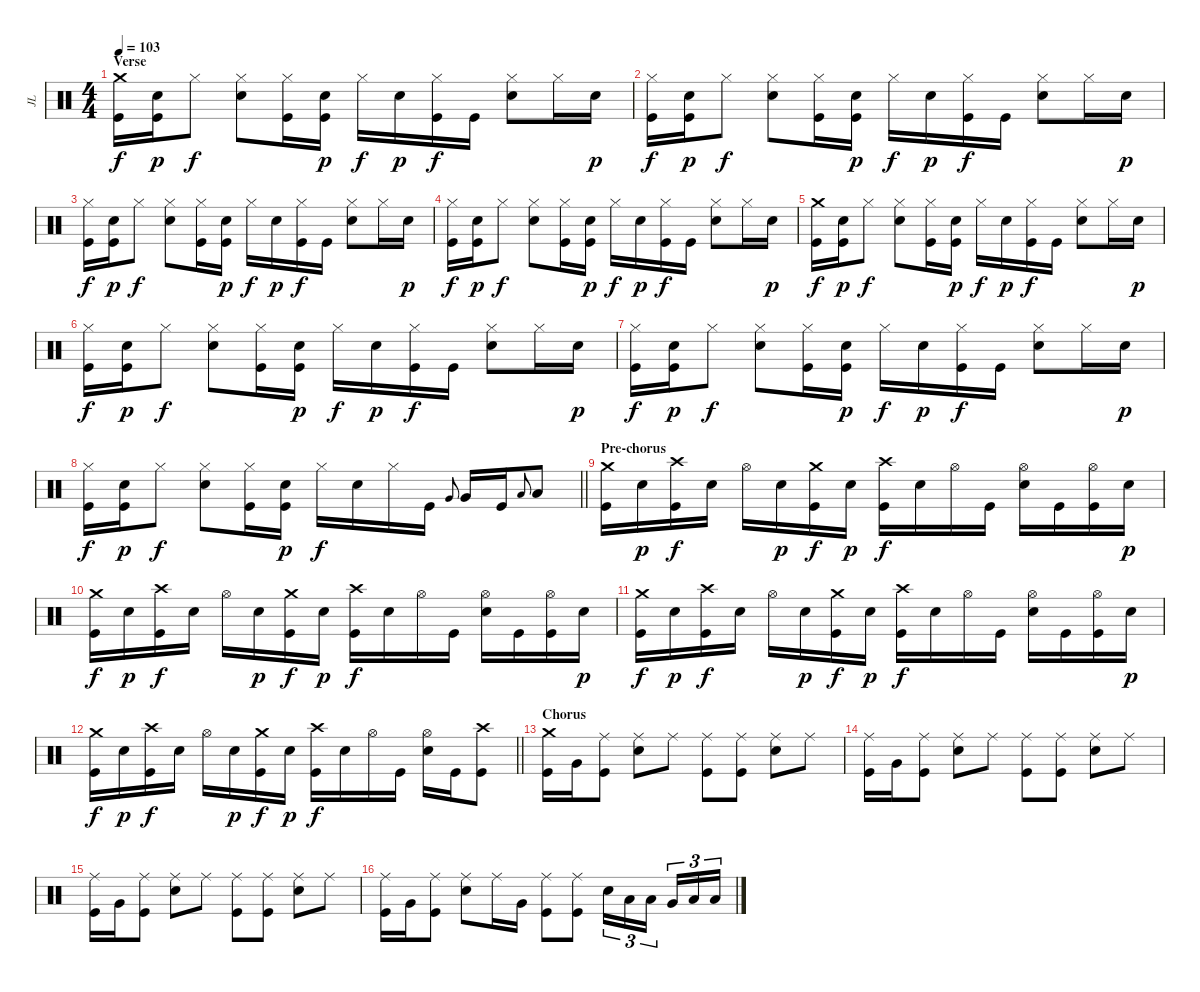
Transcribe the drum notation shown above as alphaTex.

\track ("JL" "JL") {instrument percussion}
\staff {score}
\articulation defaults
\ts (4 4)
\section ("" "Verse")
\tempo 103
\clef neutral
\ks c
("Crash medium (hit)" "Kick (hit)").16{dy f} ("Electric Snare (hit)" "Kick (hit)").16{dy p} "Hi-Hat (closed)".8{dy f} ("Hi-Hat (closed)" "Electric Snare (hit)").8 ("Hi-Hat (closed)" "Kick (hit)").16 ("Electric Snare (hit)" "Kick (hit)").16{dy p} "Hi-Hat (closed)".16{dy f} "Electric Snare (hit)".16{dy p} ("Hi-Hat (closed)" "Kick (hit)").16{dy f} "Kick (hit)".16 ("Hi-Hat (closed)" "Electric Snare (hit)").8 "Hi-Hat (closed)".16 "Electric Snare (hit)".16{dy p} |
("Hi-Hat (closed)" "Kick (hit)").16{dy f} ("Electric Snare (hit)" "Kick (hit)").16{dy p} "Hi-Hat (closed)".8{dy f} ("Hi-Hat (closed)" "Electric Snare (hit)").8 ("Hi-Hat (closed)" "Kick (hit)").16 ("Electric Snare (hit)" "Kick (hit)").16{dy p} "Hi-Hat (closed)".16{dy f} "Electric Snare (hit)".16{dy p} ("Hi-Hat (closed)" "Kick (hit)").16{dy f} "Kick (hit)".16 ("Hi-Hat (closed)" "Electric Snare (hit)").8 "Hi-Hat (closed)".16 "Electric Snare (hit)".16{dy p} |
("Hi-Hat (closed)" "Kick (hit)").16{dy f} ("Electric Snare (hit)" "Kick (hit)").16{dy p} "Hi-Hat (closed)".8{dy f} ("Hi-Hat (closed)" "Electric Snare (hit)").8 ("Hi-Hat (closed)" "Kick (hit)").16 ("Electric Snare (hit)" "Kick (hit)").16{dy p} "Hi-Hat (closed)".16{dy f} "Electric Snare (hit)".16{dy p} ("Hi-Hat (closed)" "Kick (hit)").16{dy f} "Kick (hit)".16 ("Hi-Hat (closed)" "Electric Snare (hit)").8 "Hi-Hat (closed)".16 "Electric Snare (hit)".16{dy p} |
("Hi-Hat (closed)" "Kick (hit)").16{dy f} ("Electric Snare (hit)" "Kick (hit)").16{dy p} "Hi-Hat (closed)".8{dy f} ("Hi-Hat (closed)" "Electric Snare (hit)").8 ("Hi-Hat (closed)" "Kick (hit)").16 ("Electric Snare (hit)" "Kick (hit)").16{dy p} "Hi-Hat (closed)".16{dy f} "Electric Snare (hit)".16{dy p} ("Hi-Hat (closed)" "Kick (hit)").16{dy f} "Kick (hit)".16 ("Hi-Hat (closed)" "Electric Snare (hit)").8 "Hi-Hat (closed)".16 "Electric Snare (hit)".16{dy p} |
("Crash medium (hit)" "Kick (hit)").16{dy f} ("Electric Snare (hit)" "Kick (hit)").16{dy p} "Hi-Hat (closed)".8{dy f} ("Hi-Hat (closed)" "Electric Snare (hit)").8 ("Hi-Hat (closed)" "Kick (hit)").16 ("Electric Snare (hit)" "Kick (hit)").16{dy p} "Hi-Hat (closed)".16{dy f} "Electric Snare (hit)".16{dy p} ("Hi-Hat (closed)" "Kick (hit)").16{dy f} "Kick (hit)".16 ("Hi-Hat (closed)" "Electric Snare (hit)").8 "Hi-Hat (closed)".16 "Electric Snare (hit)".16{dy p} |
("Hi-Hat (closed)" "Kick (hit)").16{dy f} ("Electric Snare (hit)" "Kick (hit)").16{dy p} "Hi-Hat (closed)".8{dy f} ("Hi-Hat (closed)" "Electric Snare (hit)").8 ("Hi-Hat (closed)" "Kick (hit)").16 ("Electric Snare (hit)" "Kick (hit)").16{dy p} "Hi-Hat (closed)".16{dy f} "Electric Snare (hit)".16{dy p} ("Hi-Hat (closed)" "Kick (hit)").16{dy f} "Kick (hit)".16 ("Hi-Hat (closed)" "Electric Snare (hit)").8 "Hi-Hat (closed)".16 "Electric Snare (hit)".16{dy p} |
("Hi-Hat (closed)" "Kick (hit)").16{dy f} ("Electric Snare (hit)" "Kick (hit)").16{dy p} "Hi-Hat (closed)".8{dy f} ("Hi-Hat (closed)" "Electric Snare (hit)").8 ("Hi-Hat (closed)" "Kick (hit)").16 ("Electric Snare (hit)" "Kick (hit)").16{dy p} "Hi-Hat (closed)".16{dy f} "Electric Snare (hit)".16{dy p} ("Hi-Hat (closed)" "Kick (hit)").16{dy f} "Kick (hit)".16 ("Hi-Hat (closed)" "Electric Snare (hit)").8 "Hi-Hat (closed)".16 "Electric Snare (hit)".16{dy p} |
\barLineRight lightlight
("Hi-Hat (closed)" "Kick (hit)").16{dy f} ("Electric Snare (hit)" "Kick (hit)").16{dy p} "Hi-Hat (closed)".8{dy f} ("Hi-Hat (closed)" "Electric Snare (hit)").8 ("Hi-Hat (closed)" "Kick (hit)").16 ("Electric Snare (hit)" "Kick (hit)").16{dy p} "Hi-Hat (closed)".16{dy f} "Electric Snare (hit)".16 "Hi-Hat (closed)".16 "Kick (hit)".16 "Very Low Tom (hit)".8{gr onbeat} "Very Low Tom (hit)".16 "Kick (hit)".16 "Low Tom (hit)".8{gr onbeat} "Low Tom (hit)".8 |
\section ("" "Pre-chorus")
("Crash medium (hit)" "Kick (hit)").16 "Electric Snare (hit)".16{dy p} ("Crash high (hit)" "Kick (hit)").16{dy f} "Electric Snare (hit)".16 "Hi-Hat (open)".16 "Electric Snare (hit)".16{dy p} ("Crash medium (hit)" "Kick (hit)").16{dy f} "Electric Snare (hit)".16{dy p} ("Crash high (hit)" "Kick (hit)").16{dy f} "Electric Snare (hit)".16 "Hi-Hat (open)".16 "Kick (hit)".16 ("Hi-Hat (open)" "Electric Snare (hit)").16 "Kick (hit)".16 ("Hi-Hat (open)" "Kick (hit)").16 "Electric Snare (hit)".16{dy p} |
("Crash medium (hit)" "Kick (hit)").16{dy f} "Electric Snare (hit)".16{dy p} ("Crash high (hit)" "Kick (hit)").16{dy f} "Electric Snare (hit)".16 "Hi-Hat (open)".16 "Electric Snare (hit)".16{dy p} ("Crash medium (hit)" "Kick (hit)").16{dy f} "Electric Snare (hit)".16{dy p} ("Crash high (hit)" "Kick (hit)").16{dy f} "Electric Snare (hit)".16 "Hi-Hat (open)".16 "Kick (hit)".16 ("Hi-Hat (open)" "Electric Snare (hit)").16 "Kick (hit)".16 ("Hi-Hat (open)" "Kick (hit)").16 "Electric Snare (hit)".16{dy p} |
("Crash medium (hit)" "Kick (hit)").16{dy f} "Electric Snare (hit)".16{dy p} ("Crash high (hit)" "Kick (hit)").16{dy f} "Electric Snare (hit)".16 "Hi-Hat (open)".16 "Electric Snare (hit)".16{dy p} ("Crash medium (hit)" "Kick (hit)").16{dy f} "Electric Snare (hit)".16{dy p} ("Crash high (hit)" "Kick (hit)").16{dy f} "Electric Snare (hit)".16 "Hi-Hat (open)".16 "Kick (hit)".16 ("Hi-Hat (open)" "Electric Snare (hit)").16 "Kick (hit)".16 ("Hi-Hat (open)" "Kick (hit)").16 "Electric Snare (hit)".16{dy p} |
\barLineRight lightlight
("Crash medium (hit)" "Kick (hit)").16{dy f} "Electric Snare (hit)".16{dy p} ("Crash high (hit)" "Kick (hit)").16{dy f} "Electric Snare (hit)".16 "Hi-Hat (open)".16 "Electric Snare (hit)".16{dy p} ("Crash medium (hit)" "Kick (hit)").16{dy f} "Electric Snare (hit)".16{dy p} ("Crash high (hit)" "Kick (hit)").16{dy f} "Electric Snare (hit)".16 "Hi-Hat (open)".16 "Kick (hit)".16 ("Hi-Hat (open)" "Electric Snare (hit)").16 "Kick (hit)".16 ("Crash high (hit)" "Kick (hit)").8 |
\section ("" "Chorus")
("Crash medium (hit)" "Kick (hit)").16 "Very Low Tom (hit)".16 ("Ride (middle)" "Kick (hit)").8 ("Ride (middle)" "Electric Snare (hit)").8 "Ride (middle)".8 ("Ride (middle)" "Kick (hit)").8 ("Ride (middle)" "Kick (hit)").8 ("Ride (middle)" "Electric Snare (hit)").8 "Ride (middle)".8 |
("Ride (middle)" "Kick (hit)").16 "Very Low Tom (hit)".16 ("Ride (middle)" "Kick (hit)").8 ("Ride (middle)" "Electric Snare (hit)").8 "Ride (middle)".8 ("Ride (middle)" "Kick (hit)").8 ("Ride (middle)" "Kick (hit)").8 ("Ride (middle)" "Electric Snare (hit)").8 "Ride (middle)".8 |
("Ride (middle)" "Kick (hit)").16 "Very Low Tom (hit)".16 ("Ride (middle)" "Kick (hit)").8 ("Ride (middle)" "Electric Snare (hit)").8 "Ride (middle)".8 ("Ride (middle)" "Kick (hit)").8 ("Ride (middle)" "Kick (hit)").8 ("Ride (middle)" "Electric Snare (hit)").8 "Ride (middle)".8 |
("Ride (middle)" "Kick (hit)").16 "Very Low Tom (hit)".16 ("Ride (middle)" "Kick (hit)").8 ("Ride (middle)" "Electric Snare (hit)").8 "Ride (middle)".16 "Very Low Tom (hit)".16 ("Ride (middle)" "Kick (hit)").8 ("Ride (middle)" "Kick (hit)").8 "Electric Snare (hit)".16{tu (3 2)} "Low Tom (hit)".16{tu (3 2)} "Low Tom (hit)".16{tu (3 2) beam splitsecondary} "Very Low Tom (hit)".16{tu (3 2)} "Low Floor Tom (hit)".16{tu (3 2)} "Low Floor Tom (hit)".16{tu (3 2)}
